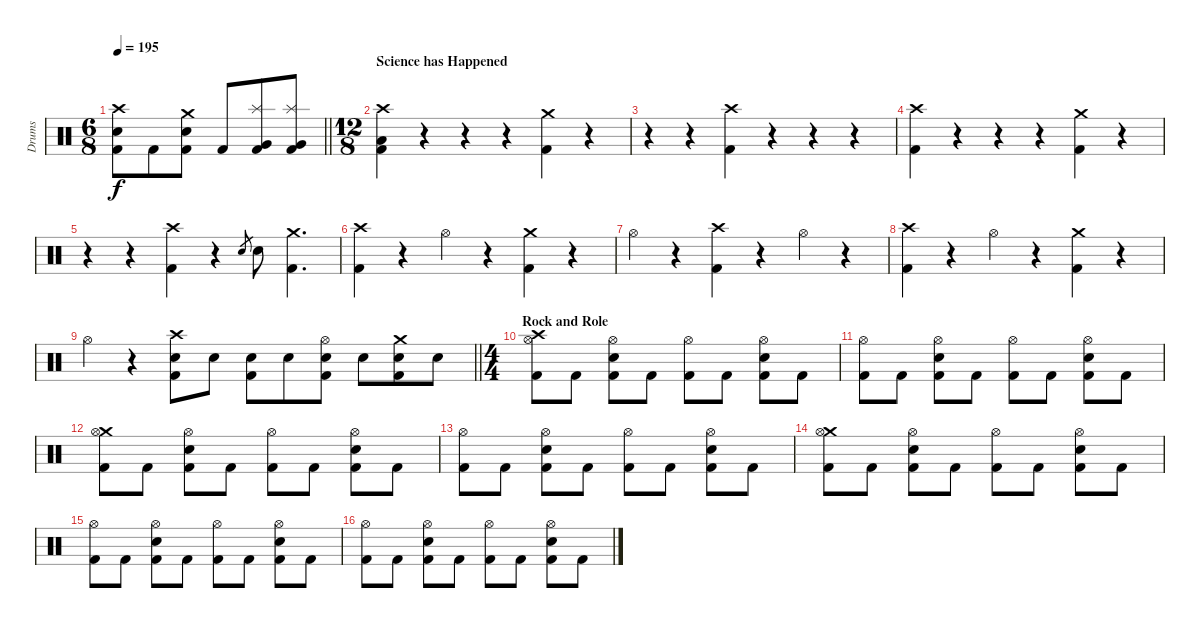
\track ("Drums" "Drums") {instrument percussion}
\staff {score}
\articulation defaults
\ts (6 8)
\tempo 195
\clef neutral
\barLineRight lightlight
\ks c
("Crash high (hit)" "Snare (hit) 2" "Kick (hit) 2").8{dy f} "Kick (hit) 2".8 ("Crash medium (hit)" "Snare (hit) 2" "Kick (hit) 2").8 "Kick (hit) 2".8 ("Splash (hit)" "Very Low Tom (hit)" "Kick (hit) 2").8 ("Splash (hit)" "Very Low Tom (hit)" "Kick (hit) 2").8 |
\ts (12 8)
\section ("" "Science has Happened")
("Crash high (hit)" "Low Floor Tom (hit)" "Kick (hit) 2").4 r.4 r.4 r.4 ("Crash medium (hit)" "Kick (hit) 2").4 r.4 |
r.4 r.4 ("Crash high (hit)" "Kick (hit) 2").4 r.4 r.4 r.4 |
("Crash high (hit)" "Kick (hit) 2").4 r.4 r.4 r.4 ("Crash medium (hit)" "Kick (hit) 2").4 r.4 |
r.4 r.4 ("Crash high (hit)" "Kick (hit) 2").4 r.4 "Snare (hit) 2".8{gr} "Snare (hit) 2".8 ("Crash medium (hit)" "Kick (hit) 2").4{d} |
("Crash high (hit)" "Kick (hit) 2").4 r.4 "Hi-Hat (open)".4 r.4 ("Crash medium (hit)" "Kick (hit) 2").4 r.4 |
"Hi-Hat (open)".4 r.4 ("Crash high (hit)" "Kick (hit) 2").4 r.4 "Hi-Hat (open)".4 r.4 |
("Crash high (hit)" "Kick (hit) 2").4 r.4 "Hi-Hat (open)".4 r.4 ("Crash medium (hit)" "Kick (hit) 2").4 r.4 |
\barLineRight lightlight "Hi-Hat (open)".4
r.4 ("Crash high (hit)" "Snare (hit) 2" "Kick (hit) 2").8 "Snare (hit) 2".8 ("Snare (hit) 2" "Kick (hit) 2").8 "Snare (hit) 2".8 ("Hi-Hat (open)" "Snare (hit) 2" "Kick (hit) 2").8 "Snare (hit) 2".8 ("Crash medium (hit)" "Snare (hit) 2" "Kick (hit) 2").8 "Snare (hit) 2".8 |
\ts (4 4)
\section ("" "Rock and Role")
("Crash high (hit)" "Hi-Hat (open)" "Kick (hit) 2").8 "Kick (hit) 2".8 ("Hi-Hat (open)" "Snare (hit) 2" "Kick (hit) 2").8 "Kick (hit) 2".8 ("Hi-Hat (open)" "Kick (hit) 2").8 "Kick (hit) 2".8 ("Hi-Hat (open)" "Snare (hit) 2" "Kick (hit) 2").8 "Kick (hit) 2".8 |
("Hi-Hat (open)" "Kick (hit) 2").8 "Kick (hit) 2".8 ("Hi-Hat (open)" "Snare (hit) 2" "Kick (hit) 2").8 "Kick (hit) 2".8 ("Hi-Hat (open)" "Kick (hit) 2").8 "Kick (hit) 2".8 ("Hi-Hat (open)" "Snare (hit) 2" "Kick (hit) 2").8 "Kick (hit) 2".8 |
("Crash medium (hit)" "Hi-Hat (open)" "Kick (hit) 2").8 "Kick (hit) 2".8 ("Hi-Hat (open)" "Snare (hit) 2" "Kick (hit) 2").8 "Kick (hit) 2".8 ("Hi-Hat (open)" "Kick (hit) 2").8 "Kick (hit) 2".8 ("Hi-Hat (open)" "Snare (hit) 2" "Kick (hit) 2").8 "Kick (hit) 2".8 |
("Hi-Hat (open)" "Kick (hit) 2").8 "Kick (hit) 2".8 ("Hi-Hat (open)" "Snare (hit) 2" "Kick (hit) 2").8 "Kick (hit) 2".8 ("Hi-Hat (open)" "Kick (hit) 2").8 "Kick (hit) 2".8 ("Hi-Hat (open)" "Snare (hit) 2" "Kick (hit) 2").8 "Kick (hit) 2".8 |
("Crash medium (hit)" "Hi-Hat (open)" "Kick (hit) 2").8 "Kick (hit) 2".8 ("Hi-Hat (open)" "Snare (hit) 2" "Kick (hit) 2").8 "Kick (hit) 2".8 ("Hi-Hat (open)" "Kick (hit) 2").8 "Kick (hit) 2".8 ("Hi-Hat (open)" "Snare (hit) 2" "Kick (hit) 2").8 "Kick (hit) 2".8 |
("Hi-Hat (open)" "Kick (hit) 2").8 "Kick (hit) 2".8 ("Hi-Hat (open)" "Snare (hit) 2" "Kick (hit) 2").8 "Kick (hit) 2".8 ("Hi-Hat (open)" "Kick (hit) 2").8 "Kick (hit) 2".8 ("Hi-Hat (open)" "Snare (hit) 2" "Kick (hit) 2").8 "Kick (hit) 2".8 |
("Hi-Hat (open)" "Kick (hit) 2").8 "Kick (hit) 2".8 ("Hi-Hat (open)" "Snare (hit) 2" "Kick (hit) 2").8 "Kick (hit) 2".8 ("Hi-Hat (open)" "Kick (hit) 2").8 "Kick (hit) 2".8 ("Hi-Hat (open)" "Snare (hit) 2" "Kick (hit) 2").8 "Kick (hit) 2".8
